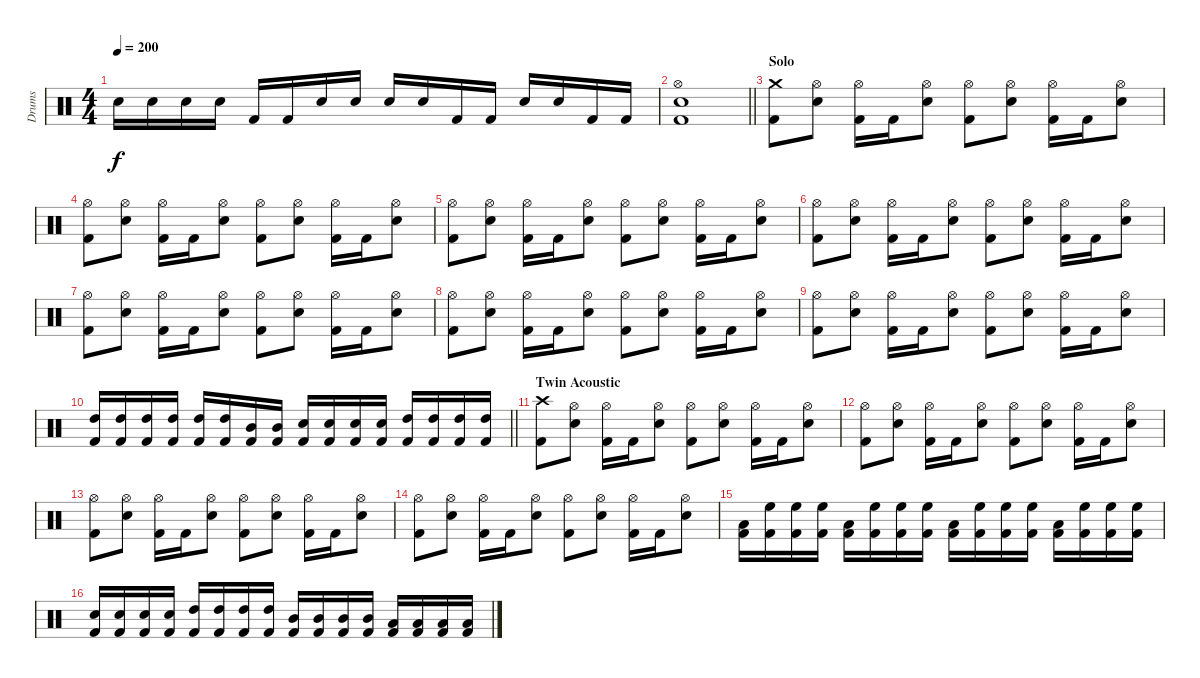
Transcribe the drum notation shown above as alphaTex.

\track ("Drums" "Drums") {instrument percussion}
\staff {score}
\articulation defaults
\ts (4 4)
\tempo 200
\clef neutral
\ks c "Snare (hit) 2".16{dy f} "Snare (hit) 2".16 "Snare (hit) 2".16 "Snare (hit) 2".16 "Kick (hit) 2".16 "Kick (hit) 2".16 "Snare (hit) 2".16 "Snare (hit) 2".16 "Snare (hit) 2".16 "Snare (hit) 2".16 "Kick (hit) 2".16 "Kick (hit) 2".16 "Snare (hit) 2".16 "Snare (hit) 2".16 "Kick (hit) 2".16 "Kick (hit) 2".16
|
\barLineRight lightlight
("Kick (hit) 2" "Snare (hit) 2" "Hi-Hat (open)").1 |
\section ("" "Solo")
("Kick (hit) 2" "Crash medium (hit)").8 ("Snare (hit) 2" "Hi-Hat (open)").8 ("Kick (hit) 2" "Hi-Hat (open)").16 "Kick (hit) 2".16 ("Snare (hit) 2" "Hi-Hat (open)").8 ("Kick (hit) 2" "Hi-Hat (open)").8 ("Snare (hit) 2" "Hi-Hat (open)").8 ("Kick (hit) 2" "Hi-Hat (open)").16 "Kick (hit) 2".16 ("Snare (hit) 2" "Hi-Hat (open)").8 |
("Kick (hit) 2" "Hi-Hat (open)").8 ("Snare (hit) 2" "Hi-Hat (open)").8 ("Kick (hit) 2" "Hi-Hat (open)").16 "Kick (hit) 2".16 ("Snare (hit) 2" "Hi-Hat (open)").8 ("Kick (hit) 2" "Hi-Hat (open)").8 ("Snare (hit) 2" "Hi-Hat (open)").8 ("Kick (hit) 2" "Hi-Hat (open)").16 "Kick (hit) 2".16 ("Snare (hit) 2" "Hi-Hat (open)").8 |
("Kick (hit) 2" "Hi-Hat (open)").8 ("Snare (hit) 2" "Hi-Hat (open)").8 ("Kick (hit) 2" "Hi-Hat (open)").16 "Kick (hit) 2".16 ("Snare (hit) 2" "Hi-Hat (open)").8 ("Kick (hit) 2" "Hi-Hat (open)").8 ("Snare (hit) 2" "Hi-Hat (open)").8 ("Kick (hit) 2" "Hi-Hat (open)").16 "Kick (hit) 2".16 ("Snare (hit) 2" "Hi-Hat (open)").8 |
("Kick (hit) 2" "Hi-Hat (open)").8 ("Snare (hit) 2" "Hi-Hat (open)").8 ("Kick (hit) 2" "Hi-Hat (open)").16 "Kick (hit) 2".16 ("Snare (hit) 2" "Hi-Hat (open)").8 ("Kick (hit) 2" "Hi-Hat (open)").8 ("Snare (hit) 2" "Hi-Hat (open)").8 ("Kick (hit) 2" "Hi-Hat (open)").16 "Kick (hit) 2".16 ("Snare (hit) 2" "Hi-Hat (open)").8 |
("Kick (hit) 2" "Hi-Hat (open)").8 ("Snare (hit) 2" "Hi-Hat (open)").8 ("Kick (hit) 2" "Hi-Hat (open)").16 "Kick (hit) 2".16 ("Snare (hit) 2" "Hi-Hat (open)").8 ("Kick (hit) 2" "Hi-Hat (open)").8 ("Snare (hit) 2" "Hi-Hat (open)").8 ("Kick (hit) 2" "Hi-Hat (open)").16 "Kick (hit) 2".16 ("Snare (hit) 2" "Hi-Hat (open)").8 |
("Kick (hit) 2" "Hi-Hat (open)").8 ("Snare (hit) 2" "Hi-Hat (open)").8 ("Kick (hit) 2" "Hi-Hat (open)").16 "Kick (hit) 2".16 ("Snare (hit) 2" "Hi-Hat (open)").8 ("Kick (hit) 2" "Hi-Hat (open)").8 ("Snare (hit) 2" "Hi-Hat (open)").8 ("Kick (hit) 2" "Hi-Hat (open)").16 "Kick (hit) 2".16 ("Snare (hit) 2" "Hi-Hat (open)").8 |
("Kick (hit) 2" "Hi-Hat (open)").8 ("Snare (hit) 2" "Hi-Hat (open)").8 ("Kick (hit) 2" "Hi-Hat (open)").16 "Kick (hit) 2".16 ("Snare (hit) 2" "Hi-Hat (open)").8 ("Kick (hit) 2" "Hi-Hat (open)").8 ("Snare (hit) 2" "Hi-Hat (open)").8 ("Kick (hit) 2" "Hi-Hat (open)").16 "Kick (hit) 2".16 ("Snare (hit) 2" "Hi-Hat (open)").8 |
\barLineRight lightlight
("Kick (hit) 2" "High Tom (hit)").16 ("Kick (hit) 2" "High Tom (hit)").16 ("Kick (hit) 2" "High Tom (hit)").16 ("Kick (hit) 2" "High Tom (hit)").16 ("Kick (hit) 2" "High Tom (hit)").16 ("Kick (hit) 2" "High Tom (hit)").16 ("Kick (hit) 2" "Mid Tom (hit)").16 ("Kick (hit) 2" "Mid Tom (hit)").16 ("Kick (hit) 2" "Snare (hit) 2").16 ("Kick (hit) 2" "Snare (hit) 2").16 ("Kick (hit) 2" "Snare (hit) 2").16 ("Kick (hit) 2" "Snare (hit) 2").16 ("Kick (hit) 2" "High Tom (hit)").16 ("Kick (hit) 2" "High Tom (hit)").16 ("Kick (hit) 2" "High Tom (hit)").16 ("Kick (hit) 2" "High Tom (hit)").16 |
\section ("" "Twin Acoustic")
("Kick (hit) 2" "Crash high (hit)").8 ("Snare (hit) 2" "Hi-Hat (open)").8 ("Kick (hit) 2" "Hi-Hat (open)").16 "Kick (hit) 2".16 ("Snare (hit) 2" "Hi-Hat (open)").8 ("Kick (hit) 2" "Hi-Hat (open)").8 ("Snare (hit) 2" "Hi-Hat (open)").8 ("Kick (hit) 2" "Hi-Hat (open)").16 "Kick (hit) 2".16 ("Snare (hit) 2" "Hi-Hat (open)").8 |
("Kick (hit) 2" "Hi-Hat (open)").8 ("Snare (hit) 2" "Hi-Hat (open)").8 ("Kick (hit) 2" "Hi-Hat (open)").16 "Kick (hit) 2".16 ("Snare (hit) 2" "Hi-Hat (open)").8 ("Kick (hit) 2" "Hi-Hat (open)").8 ("Snare (hit) 2" "Hi-Hat (open)").8 ("Kick (hit) 2" "Hi-Hat (open)").16 "Kick (hit) 2".16 ("Snare (hit) 2" "Hi-Hat (open)").8 |
("Kick (hit) 2" "Hi-Hat (open)").8 ("Snare (hit) 2" "Hi-Hat (open)").8 ("Kick (hit) 2" "Hi-Hat (open)").16 "Kick (hit) 2".16 ("Snare (hit) 2" "Hi-Hat (open)").8 ("Kick (hit) 2" "Hi-Hat (open)").8 ("Snare (hit) 2" "Hi-Hat (open)").8 ("Kick (hit) 2" "Hi-Hat (open)").16 "Kick (hit) 2".16 ("Snare (hit) 2" "Hi-Hat (open)").8 |
("Kick (hit) 2" "Hi-Hat (open)").8 ("Snare (hit) 2" "Hi-Hat (open)").8 ("Kick (hit) 2" "Hi-Hat (open)").16 "Kick (hit) 2".16 ("Snare (hit) 2" "Hi-Hat (open)").8 ("Kick (hit) 2" "Hi-Hat (open)").8 ("Snare (hit) 2" "Hi-Hat (open)").8 ("Kick (hit) 2" "Hi-Hat (open)").16 "Kick (hit) 2".16 ("Snare (hit) 2" "Hi-Hat (open)").8 |
("Kick (hit) 2" "Low Tom (hit)").16 ("Kick (hit) 2" "High Floor Tom (hit)").16 ("Kick (hit) 2" "High Floor Tom (hit)").16 ("Kick (hit) 2" "High Floor Tom (hit)").16 ("Kick (hit) 2" "Low Tom (hit)").16 ("Kick (hit) 2" "High Floor Tom (hit)").16 ("Kick (hit) 2" "High Floor Tom (hit)").16 ("Kick (hit) 2" "High Floor Tom (hit)").16 ("Kick (hit) 2" "Low Tom (hit)").16 ("Kick (hit) 2" "High Floor Tom (hit)").16 ("Kick (hit) 2" "High Floor Tom (hit)").16 ("Kick (hit) 2" "High Floor Tom (hit)").16 ("Kick (hit) 2" "Low Tom (hit)").16 ("Kick (hit) 2" "High Floor Tom (hit)").16 ("Kick (hit) 2" "High Floor Tom (hit)").16 ("Kick (hit) 2" "High Floor Tom (hit)").16 |
("Kick (hit) 2" "Snare (hit) 2").16 ("Kick (hit) 2" "Snare (hit) 2").16 ("Kick (hit) 2" "Snare (hit) 2").16 ("Kick (hit) 2" "Snare (hit) 2").16 ("Kick (hit) 2" "High Tom (hit)").16 ("Kick (hit) 2" "High Tom (hit)").16 ("Kick (hit) 2" "High Tom (hit)").16 ("Kick (hit) 2" "High Tom (hit)").16 ("Kick (hit) 2" "Mid Tom (hit)").16 ("Kick (hit) 2" "Mid Tom (hit)").16 ("Kick (hit) 2" "Mid Tom (hit)").16 ("Kick (hit) 2" "Mid Tom (hit)").16 ("Kick (hit) 2" "Low Tom (hit)").16 ("Kick (hit) 2" "Low Tom (hit)").16 ("Kick (hit) 2" "Low Tom (hit)").16 ("Kick (hit) 2" "Low Tom (hit)").16
